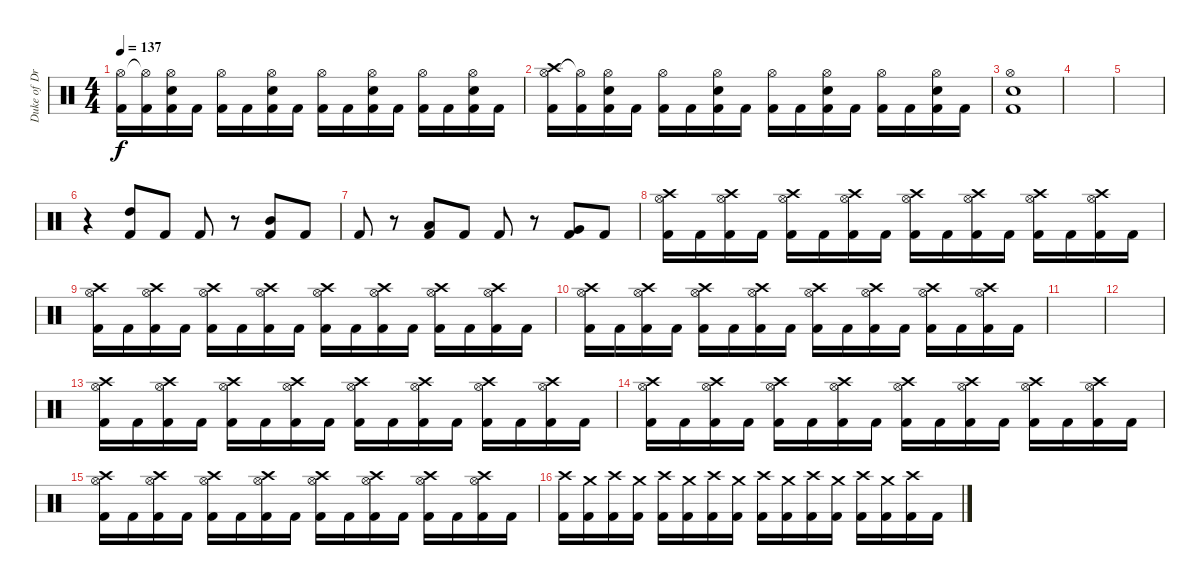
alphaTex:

\track ("Duke of Drumington" "Duke of Dr") {instrument percussion}
\staff {score}
\articulation defaults
\ts (4 4)
\tempo 137
\clef neutral
\ks c
("Hi-Hat (open)" "Kick (hit) 2").16{dy f} ("Hi-Hat (open)"{t} "Kick (hit) 2").16 ("Hi-Hat (open)" "Snare (hit) 2" "Kick (hit) 2").16 "Kick (hit) 2".16 ("Hi-Hat (open)" "Kick (hit) 2").16 "Kick (hit) 2".16 ("Hi-Hat (open)" "Snare (hit) 2" "Kick (hit) 2").16 "Kick (hit) 2".16 ("Hi-Hat (open)" "Kick (hit) 2").16 "Kick (hit) 2".16 ("Hi-Hat (open)" "Snare (hit) 2" "Kick (hit) 2").16 "Kick (hit) 2".16 ("Hi-Hat (open)" "Kick (hit) 2").16 "Kick (hit) 2".16 ("Hi-Hat (open)" "Snare (hit) 2" "Kick (hit) 2").16 "Kick (hit) 2".16 |
("Hi-Hat (open)" "Crash high (hit)" "Kick (hit) 2").16 ("Hi-Hat (open)"{t} "Kick (hit) 2").16 ("Hi-Hat (open)" "Snare (hit) 2" "Kick (hit) 2").16 "Kick (hit) 2".16 ("Hi-Hat (open)" "Kick (hit) 2").16 "Kick (hit) 2".16 ("Hi-Hat (open)" "Snare (hit) 2" "Kick (hit) 2").16 "Kick (hit) 2".16 ("Hi-Hat (open)" "Kick (hit) 2").16 "Kick (hit) 2".16 ("Hi-Hat (open)" "Snare (hit) 2" "Kick (hit) 2").16 "Kick (hit) 2".16 ("Hi-Hat (open)" "Kick (hit) 2").16 "Kick (hit) 2".16 ("Hi-Hat (open)" "Snare (hit) 2" "Kick (hit) 2").16 "Kick (hit) 2".16 |
("Hi-Hat (open)" "Snare (hit) 2" "Kick (hit) 2").1 |
|
|
r.4 ("High Tom (hit)" "Kick (hit) 2").8 "Kick (hit) 2".8 "Kick (hit) 2".8 r.8 ("Mid Tom (hit)" "Kick (hit) 2").8 "Kick (hit) 2".8 |
"Kick (hit) 2".8 r.8 ("Low Tom (hit)" "Kick (hit) 2").8 "Kick (hit) 2".8 "Kick (hit) 2".8 r.8 ("Very Low Tom (hit)" "Kick (hit) 2").8 "Kick (hit) 2".8 |
("Crash high (hit)" "Hi-Hat (open)" "Kick (hit) 2").16 "Kick (hit) 2".16 ("Crash high (hit)" "Hi-Hat (open)" "Kick (hit) 2").16 "Kick (hit) 2".16 ("Crash high (hit)" "Hi-Hat (open)" "Kick (hit) 2").16 "Kick (hit) 2".16 ("Crash high (hit)" "Hi-Hat (open)" "Kick (hit) 2").16 "Kick (hit) 2".16 ("Crash high (hit)" "Hi-Hat (open)" "Kick (hit) 2").16 "Kick (hit) 2".16 ("Crash high (hit)" "Hi-Hat (open)" "Kick (hit) 2").16 "Kick (hit) 2".16 ("Crash high (hit)" "Hi-Hat (open)" "Kick (hit) 2").16 "Kick (hit) 2".16 ("Crash high (hit)" "Hi-Hat (open)" "Kick (hit) 2").16 "Kick (hit) 2".16 |
("Crash high (hit)" "Hi-Hat (open)" "Kick (hit) 2").16 "Kick (hit) 2".16 ("Crash high (hit)" "Hi-Hat (open)" "Kick (hit) 2").16 "Kick (hit) 2".16 ("Crash high (hit)" "Hi-Hat (open)" "Kick (hit) 2").16 "Kick (hit) 2".16 ("Crash high (hit)" "Hi-Hat (open)" "Kick (hit) 2").16 "Kick (hit) 2".16 ("Crash high (hit)" "Hi-Hat (open)" "Kick (hit) 2").16 "Kick (hit) 2".16 ("Crash high (hit)" "Hi-Hat (open)" "Kick (hit) 2").16 "Kick (hit) 2".16 ("Crash high (hit)" "Hi-Hat (open)" "Kick (hit) 2").16 "Kick (hit) 2".16 ("Crash high (hit)" "Hi-Hat (open)" "Kick (hit) 2").16 "Kick (hit) 2".16 |
("Crash high (hit)" "Hi-Hat (open)" "Kick (hit) 2").16 "Kick (hit) 2".16 ("Crash high (hit)" "Hi-Hat (open)" "Kick (hit) 2").16 "Kick (hit) 2".16 ("Crash high (hit)" "Hi-Hat (open)" "Kick (hit) 2").16 "Kick (hit) 2".16 ("Crash high (hit)" "Hi-Hat (open)" "Kick (hit) 2").16 "Kick (hit) 2".16 ("Crash high (hit)" "Hi-Hat (open)" "Kick (hit) 2").16 "Kick (hit) 2".16 ("Crash high (hit)" "Hi-Hat (open)" "Kick (hit) 2").16 "Kick (hit) 2".16 ("Crash high (hit)" "Hi-Hat (open)" "Kick (hit) 2").16 "Kick (hit) 2".16 ("Crash high (hit)" "Hi-Hat (open)" "Kick (hit) 2").16 "Kick (hit) 2".16 |
|
|
("Crash high (hit)" "Hi-Hat (open)" "Kick (hit) 2").16 "Kick (hit) 2".16 ("Crash high (hit)" "Hi-Hat (open)" "Kick (hit) 2").16 "Kick (hit) 2".16 ("Crash high (hit)" "Hi-Hat (open)" "Kick (hit) 2").16 "Kick (hit) 2".16 ("Crash high (hit)" "Hi-Hat (open)" "Kick (hit) 2").16 "Kick (hit) 2".16 ("Crash high (hit)" "Hi-Hat (open)" "Kick (hit) 2").16 "Kick (hit) 2".16 ("Crash high (hit)" "Hi-Hat (open)" "Kick (hit) 2").16 "Kick (hit) 2".16 ("Crash high (hit)" "Hi-Hat (open)" "Kick (hit) 2").16 "Kick (hit) 2".16 ("Crash high (hit)" "Hi-Hat (open)" "Kick (hit) 2").16 "Kick (hit) 2".16 |
("Crash high (hit)" "Hi-Hat (open)" "Kick (hit) 2").16 "Kick (hit) 2".16 ("Crash high (hit)" "Hi-Hat (open)" "Kick (hit) 2").16 "Kick (hit) 2".16 ("Crash high (hit)" "Hi-Hat (open)" "Kick (hit) 2").16 "Kick (hit) 2".16 ("Crash high (hit)" "Hi-Hat (open)" "Kick (hit) 2").16 "Kick (hit) 2".16 ("Crash high (hit)" "Hi-Hat (open)" "Kick (hit) 2").16 "Kick (hit) 2".16 ("Crash high (hit)" "Hi-Hat (open)" "Kick (hit) 2").16 "Kick (hit) 2".16 ("Crash high (hit)" "Hi-Hat (open)" "Kick (hit) 2").16 "Kick (hit) 2".16 ("Crash high (hit)" "Hi-Hat (open)" "Kick (hit) 2").16 "Kick (hit) 2".16 |
("Crash high (hit)" "Hi-Hat (open)" "Kick (hit) 2").16 "Kick (hit) 2".16 ("Crash high (hit)" "Hi-Hat (open)" "Kick (hit) 2").16 "Kick (hit) 2".16 ("Crash high (hit)" "Hi-Hat (open)" "Kick (hit) 2").16 "Kick (hit) 2".16 ("Crash high (hit)" "Hi-Hat (open)" "Kick (hit) 2").16 "Kick (hit) 2".16 ("Crash high (hit)" "Hi-Hat (open)" "Kick (hit) 2").16 "Kick (hit) 2".16 ("Crash high (hit)" "Hi-Hat (open)" "Kick (hit) 2").16 "Kick (hit) 2".16 ("Crash high (hit)" "Hi-Hat (open)" "Kick (hit) 2").16 "Kick (hit) 2".16 ("Crash high (hit)" "Hi-Hat (open)" "Kick (hit) 2").16 "Kick (hit) 2".16 |
("Crash high (hit)" "Kick (hit) 2").16 ("Crash medium (hit)" "Kick (hit) 2").16 ("Crash high (hit)" "Kick (hit) 2").16 ("Crash medium (hit)" "Kick (hit) 2").16 ("Crash high (hit)" "Kick (hit) 2").16 ("Crash medium (hit)" "Kick (hit) 2").16 ("Crash high (hit)" "Kick (hit) 2").16 ("Crash medium (hit)" "Kick (hit) 2").16 ("Crash high (hit)" "Kick (hit) 2").16 ("Crash medium (hit)" "Kick (hit) 2").16 ("Crash high (hit)" "Kick (hit) 2").16 ("Crash medium (hit)" "Kick (hit) 2").16 ("Crash high (hit)" "Kick (hit) 2").16 ("Crash medium (hit)" "Kick (hit) 2").16 ("Crash high (hit)" "Kick (hit) 2").16 "Kick (hit) 2".16
